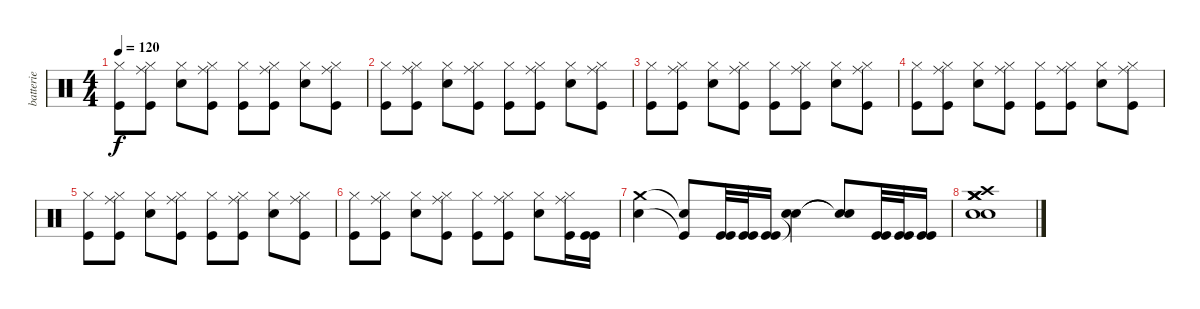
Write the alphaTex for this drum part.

\track ("batterie" "batterie") {instrument percussion}
\staff {score}
\articulation defaults
\ts (4 4)
\tempo 120
\clef neutral
\ks c
("Kick (hit)" "Hi-Hat (closed)").8{dy f} ("Kick (hit)" "Ride (middle)" "Hi-Hat (closed)").8 ("Electric Snare (hit)" "Hi-Hat (closed)").8 ("Kick (hit)" "Ride (middle)" "Hi-Hat (closed)").8 ("Kick (hit)" "Hi-Hat (closed)").8 ("Kick (hit)" "Ride (middle)" "Hi-Hat (closed)").8 ("Electric Snare (hit)" "Hi-Hat (closed)").8 ("Kick (hit)" "Ride (middle)" "Hi-Hat (closed)").8 |
("Kick (hit)" "Hi-Hat (closed)").8 ("Kick (hit)" "Ride (middle)" "Hi-Hat (closed)").8 ("Electric Snare (hit)" "Hi-Hat (closed)").8 ("Kick (hit)" "Ride (middle)" "Hi-Hat (closed)").8 ("Kick (hit)" "Hi-Hat (closed)").8 ("Kick (hit)" "Ride (middle)" "Hi-Hat (closed)").8 ("Electric Snare (hit)" "Hi-Hat (closed)").8 ("Kick (hit)" "Ride (middle)" "Hi-Hat (closed)").8 |
("Kick (hit)" "Hi-Hat (closed)").8 ("Kick (hit)" "Ride (middle)" "Hi-Hat (closed)").8 ("Electric Snare (hit)" "Hi-Hat (closed)").8 ("Kick (hit)" "Ride (middle)" "Hi-Hat (closed)").8 ("Kick (hit)" "Hi-Hat (closed)").8 ("Kick (hit)" "Ride (middle)" "Hi-Hat (closed)").8 ("Electric Snare (hit)" "Hi-Hat (closed)").8 ("Kick (hit)" "Ride (middle)" "Hi-Hat (closed)").8 |
("Kick (hit)" "Hi-Hat (closed)").8 ("Kick (hit)" "Ride (middle)" "Hi-Hat (closed)").8 ("Electric Snare (hit)" "Hi-Hat (closed)").8 ("Kick (hit)" "Ride (middle)" "Hi-Hat (closed)").8 ("Kick (hit)" "Hi-Hat (closed)").8 ("Kick (hit)" "Ride (middle)" "Hi-Hat (closed)").8 ("Electric Snare (hit)" "Hi-Hat (closed)").8 ("Kick (hit)" "Ride (middle)" "Hi-Hat (closed)").8 |
("Kick (hit)" "Hi-Hat (closed)").8 ("Kick (hit)" "Ride (middle)" "Hi-Hat (closed)").8 ("Electric Snare (hit)" "Hi-Hat (closed)").8 ("Kick (hit)" "Ride (middle)" "Hi-Hat (closed)").8 ("Kick (hit)" "Hi-Hat (closed)").8 ("Kick (hit)" "Ride (middle)" "Hi-Hat (closed)").8 ("Electric Snare (hit)" "Hi-Hat (closed)").8 ("Kick (hit)" "Ride (middle)" "Hi-Hat (closed)").8 |
("Kick (hit)" "Hi-Hat (closed)").8 ("Kick (hit)" "Ride (middle)" "Hi-Hat (closed)").8 ("Electric Snare (hit)" "Hi-Hat (closed)").8 ("Kick (hit)" "Ride (middle)" "Hi-Hat (closed)").8 ("Kick (hit)" "Hi-Hat (closed)").8 ("Kick (hit)" "Ride (middle)" "Hi-Hat (closed)").8 ("Electric Snare (hit)" "Hi-Hat (closed)").8 ("Kick (hit)" "Ride (middle)" "Hi-Hat (closed)").16 ("Kick (hit)" "Kick (hit)").16 |
("Electric Snare (hit)" "Crash medium (hit)").4 ("Kick (hit)"{t} "Snare (hit)"{t}).8 ("Kick (hit)" "Kick (hit)").32 ("Kick (hit)" "Kick (hit)").32 ("Kick (hit)" "Kick (hit)").16 ("Electric Snare (hit)" "Snare (hit)"{t}).4 ("Snare (hit)"{t} "Snare (hit)"{t}).8 ("Kick (hit)" "Kick (hit)").32 ("Kick (hit)" "Kick (hit)").32 ("Kick (hit)" "Kick (hit)").16 |
("Crash high (hit)" "Electric Snare (hit)" "Electric Snare (hit)" "Crash medium (hit)" "Crash medium (hit)" "Crash medium (hit)").1
